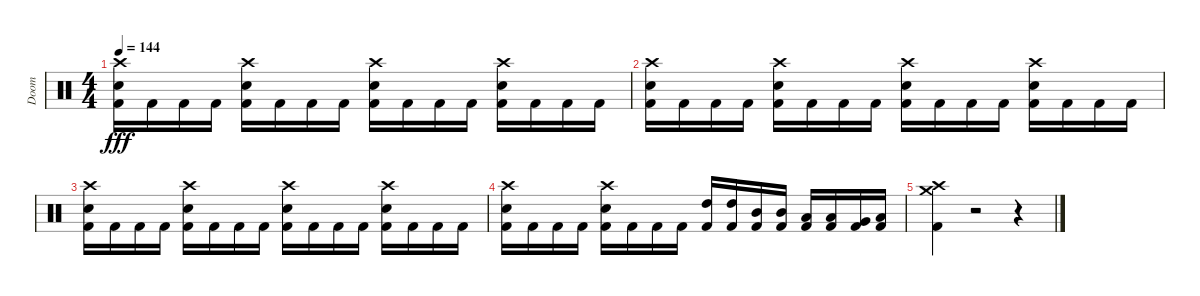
\track ("Doom" "Doom") {instrument percussion}
\staff {score}
\articulation defaults
\ts (4 4)
\tempo 144
\clef neutral
\ks c
("Crash high (hit)" "Snare (hit) 2" "Kick (hit) 2").16{dy fff} "Kick (hit) 2".16 "Kick (hit) 2".16 "Kick (hit) 2".16 ("Crash high (hit)" "Snare (hit) 2" "Kick (hit) 2").16 "Kick (hit) 2".16 "Kick (hit) 2".16 "Kick (hit) 2".16 ("Crash high (hit)" "Snare (hit) 2" "Kick (hit) 2").16 "Kick (hit) 2".16 "Kick (hit) 2".16 "Kick (hit) 2".16 ("Crash high (hit)" "Snare (hit) 2" "Kick (hit) 2").16 "Kick (hit) 2".16 "Kick (hit) 2".16 "Kick (hit) 2".16 |
("Crash high (hit)" "Snare (hit) 2" "Kick (hit) 2").16 "Kick (hit) 2".16 "Kick (hit) 2".16 "Kick (hit) 2".16 ("Crash high (hit)" "Snare (hit) 2" "Kick (hit) 2").16 "Kick (hit) 2".16 "Kick (hit) 2".16 "Kick (hit) 2".16 ("Crash high (hit)" "Snare (hit) 2" "Kick (hit) 2").16 "Kick (hit) 2".16 "Kick (hit) 2".16 "Kick (hit) 2".16 ("Crash high (hit)" "Snare (hit) 2" "Kick (hit) 2").16 "Kick (hit) 2".16 "Kick (hit) 2".16 "Kick (hit) 2".16 |
("Crash high (hit)" "Snare (hit) 2" "Kick (hit) 2").16 "Kick (hit) 2".16 "Kick (hit) 2".16 "Kick (hit) 2".16 ("Crash high (hit)" "Snare (hit) 2" "Kick (hit) 2").16 "Kick (hit) 2".16 "Kick (hit) 2".16 "Kick (hit) 2".16 ("Crash high (hit)" "Snare (hit) 2" "Kick (hit) 2").16 "Kick (hit) 2".16 "Kick (hit) 2".16 "Kick (hit) 2".16 ("Crash high (hit)" "Snare (hit) 2" "Kick (hit) 2").16 "Kick (hit) 2".16 "Kick (hit) 2".16 "Kick (hit) 2".16 |
("Crash high (hit)" "Snare (hit) 2" "Kick (hit) 2").16 "Kick (hit) 2".16 "Kick (hit) 2".16 "Kick (hit) 2".16 ("Crash high (hit)" "Snare (hit) 2" "Kick (hit) 2").16 "Kick (hit) 2".16 "Kick (hit) 2".16 "Kick (hit) 2".16 ("Kick (hit) 2" "High Tom (hit)").16 ("Kick (hit) 2" "High Tom (hit)").16 ("Kick (hit) 2" "Mid Tom (hit)").16 ("Kick (hit) 2" "Mid Tom (hit)").16 ("Kick (hit) 2" "Low Tom (hit)").16 ("Kick (hit) 2" "Low Tom (hit)").16 ("Kick (hit) 2" "Very Low Tom (hit)").16 ("Kick (hit) 2" "Low Floor Tom (hit)").16 |
("Crash high (hit)" "Kick (hit) 2" "Crash medium (hit)").4 r.2 r.4
